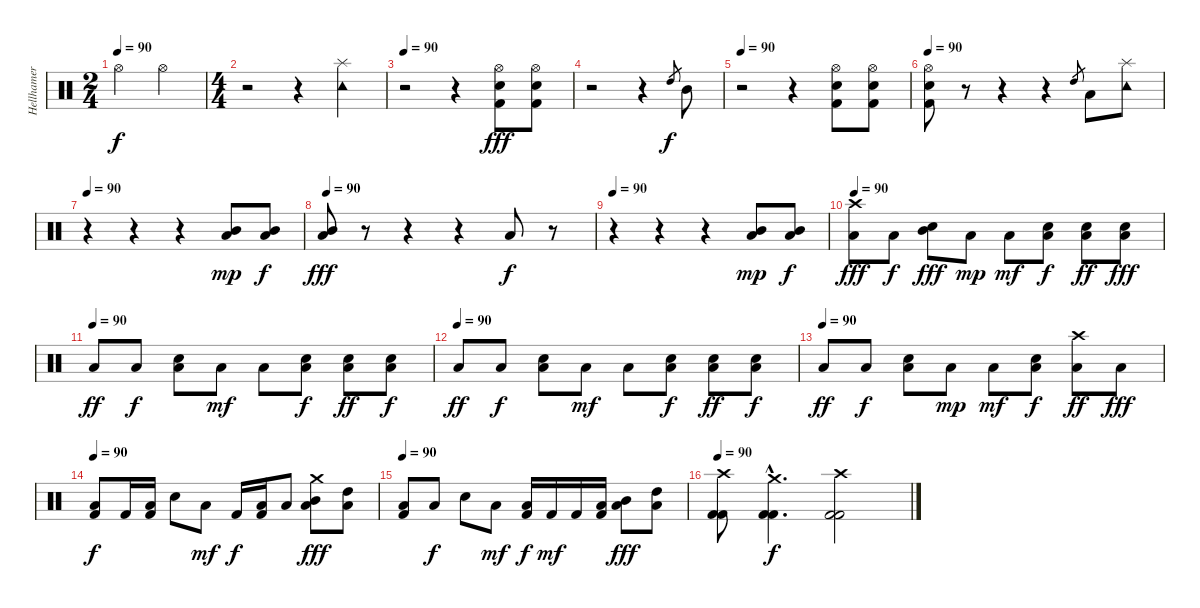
\track ("Hellhamer" "Hellhamer") {instrument percussion}
\staff {score}
\articulation defaults
\ts (2 4)
\tempo 90
\clef neutral
\ks c "Hi-Hat (open)".4{dy f} "Hi-Hat (open)".4
|
\ts (4 4)
r.2 r.4 ("Splash (hit)" "Tambourine (hit)").4 |
\tempo 90
r.2 r.4 ("Hi-Hat (open)" "Electric Snare (hit)" "Kick (hit) 2").8{dy fff} ("Hi-Hat (open)" "Electric Snare (hit)" "Kick (hit) 2").8 |
r.2 r.4 "High Tom (hit)".8{gr dy f} "Mid Tom (hit)".8 |
\tempo 90
r.2 r.4 ("Hi-Hat (open)" "Electric Snare (hit)" "Kick (hit) 2").8 ("Hi-Hat (open)" "Electric Snare (hit)" "Kick (hit) 2").8 |
\tempo 90
("Hi-Hat (open)" "Electric Snare (hit)" "Kick (hit) 2").8 r.8 r.4 r.4 "High Tom (hit)".8{gr} "Low Tom (hit)".8 ("Splash (hit)" "Tambourine (hit)").8 |
\tempo 90
r.4 r.4 r.4 ("Mid Tom (hit)" "Low Tom (hit)").8{dy mp} ("Mid Tom (hit)" "Low Tom (hit)").8{dy f} |
\tempo 90
("Mid Tom (hit)" "Low Tom (hit)").8{dy fff} r.8 r.4 r.4 "Low Tom (hit)".8{dy f} r.8 |
\tempo 90
r.4 r.4 r.4 ("Mid Tom (hit)" "Low Tom (hit)").8{dy mp} ("Mid Tom (hit)" "Low Tom (hit)").8{dy f} |
\tempo 90
("Crash high (hit)" "Low Tom (hit)").8{dy fff} "Low Tom (hit)".8{dy f} ("Electric Snare (hit)" "Mid Tom (hit)").8{dy fff} "Low Tom (hit)".8{dy mp} "Low Tom (hit)".8{dy mf} ("Electric Snare (hit)" "Low Tom (hit)").8{dy f} ("Electric Snare (hit)" "Low Tom (hit)").8{dy ff} ("Electric Snare (hit)" "Low Tom (hit)").8{dy fff} |
\tempo (90)
"Low Tom (hit)".8{dy ff} "Low Tom (hit)".8{dy f} ("Electric Snare (hit)" "Low Tom (hit)").8 "Low Tom (hit)".8{dy mf} "Low Tom (hit)".8 ("Electric Snare (hit)" "Low Tom (hit)").8{dy f} ("Electric Snare (hit)" "Low Tom (hit)").8{dy ff} ("Electric Snare (hit)" "Low Tom (hit)").8{dy f} |
\tempo (90)
"Low Tom (hit)".8{dy ff} "Low Tom (hit)".8{dy f} ("Electric Snare (hit)" "Low Tom (hit)").8 "Low Tom (hit)".8{dy mf} "Low Tom (hit)".8 ("Electric Snare (hit)" "Low Tom (hit)").8{dy f} ("Electric Snare (hit)" "Low Tom (hit)").8{dy ff} ("Electric Snare (hit)" "Low Tom (hit)").8{dy f} |
\tempo (90)
"Low Tom (hit)".8{dy ff} "Low Tom (hit)".8{dy f} ("Electric Snare (hit)" "Low Tom (hit)").8 "Low Tom (hit)".8{dy mp} "Low Tom (hit)".8{dy mf} ("Electric Snare (hit)" "Low Tom (hit)").8{dy f} ("Crash high (hit)" "Low Tom (hit)").8{dy ff} "Low Tom (hit)".8{dy fff} |
\tempo 90
("Low Tom (hit)" "Kick (hit) 2").8{dy f} "Kick (hit) 2".16 ("Low Tom (hit)" "Kick (hit) 2").16 "Electric Snare (hit)".8 "Low Tom (hit)".8{dy mf} "Kick (hit) 2".16{dy f} ("Low Tom (hit)" "Kick (hit) 2").16 "Low Tom (hit)".8 ("Crash medium (hit)" "Mid Tom (hit)" "Low Tom (hit)").8{dy fff} ("High Tom (hit)" "Low Tom (hit)").8 |
\tempo 90
("Low Tom (hit)" "Kick (hit) 2").8 "Low Tom (hit)".8{dy f} "Electric Snare (hit)".8 "Low Tom (hit)".8{dy mf} ("Low Tom (hit)" "Kick (hit) 2").16{dy f} "Kick (hit) 2".16{dy mf} "Kick (hit) 2".16 ("Low Tom (hit)" "Kick (hit) 2").16 ("Mid Tom (hit)" "Low Tom (hit)").8{dy fff} ("High Tom (hit)" "Low Tom (hit)").8 |
\tempo 90
("Crash high (hit)" "Kick (hit) 2" "Kick (hit) 2").8 ("Crash medium (hit)"{hac} "Kick (hit) 2"{hac} "Kick (hit) 2"{hac}).4{d dy f} ("Crash high (hit)" "Kick (hit) 2" "Kick (hit) 2").2
